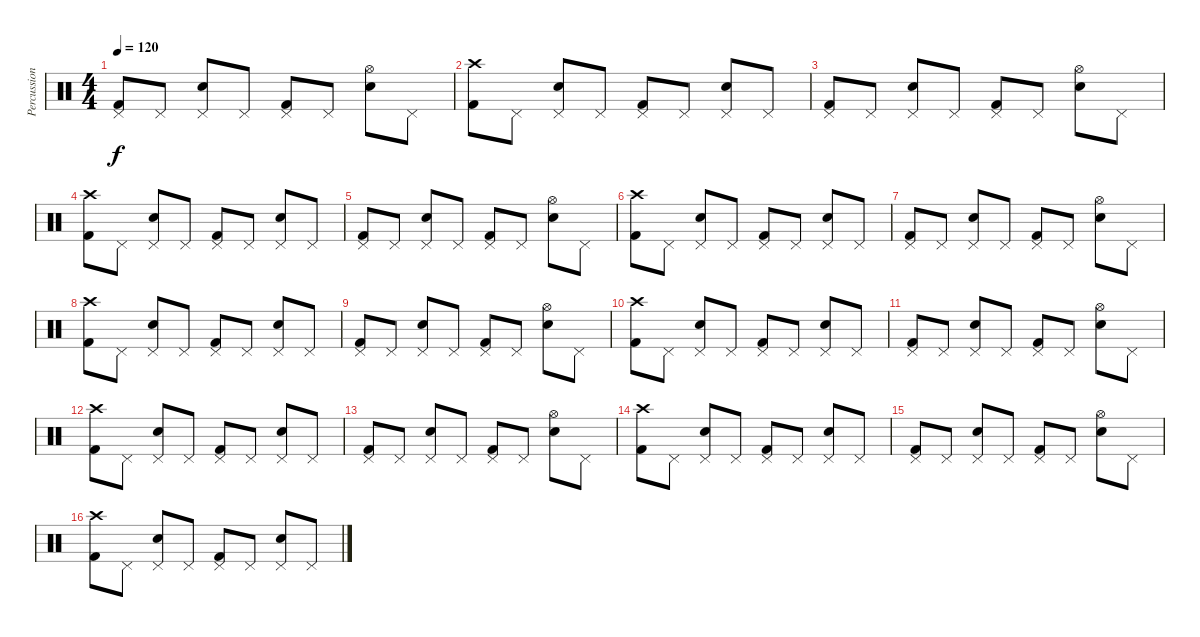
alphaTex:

\track ("Percussion" "Percussion") {instrument percussion}
\staff {score}
\articulation defaults
\ts (4 4)
\tempo 120
\clef neutral
\ks c
("Pedal Hi-Hat (hit)" "Kick (hit) 2").8{dy f} "Pedal Hi-Hat (hit)".8 ("Pedal Hi-Hat (hit)" "Electric Snare (hit)").8 "Pedal Hi-Hat (hit)".8 ("Pedal Hi-Hat (hit)" "Kick (hit) 2").8 "Pedal Hi-Hat (hit)".8 ("Hi-Hat (open)" "Electric Snare (hit)").8 "Pedal Hi-Hat (hit)".8 |
("Crash high (hit)" "Kick (hit) 2").8 "Pedal Hi-Hat (hit)".8 ("Pedal Hi-Hat (hit)" "Electric Snare (hit)").8 "Pedal Hi-Hat (hit)".8 ("Pedal Hi-Hat (hit)" "Kick (hit) 2").8 "Pedal Hi-Hat (hit)".8 ("Pedal Hi-Hat (hit)" "Electric Snare (hit)").8 "Pedal Hi-Hat (hit)".8 |
("Pedal Hi-Hat (hit)" "Kick (hit) 2").8 "Pedal Hi-Hat (hit)".8 ("Pedal Hi-Hat (hit)" "Electric Snare (hit)").8 "Pedal Hi-Hat (hit)".8 ("Pedal Hi-Hat (hit)" "Kick (hit) 2").8 "Pedal Hi-Hat (hit)".8 ("Hi-Hat (open)" "Electric Snare (hit)").8 "Pedal Hi-Hat (hit)".8 |
("Crash high (hit)" "Kick (hit) 2").8 "Pedal Hi-Hat (hit)".8 ("Pedal Hi-Hat (hit)" "Electric Snare (hit)").8 "Pedal Hi-Hat (hit)".8 ("Pedal Hi-Hat (hit)" "Kick (hit) 2").8 "Pedal Hi-Hat (hit)".8 ("Pedal Hi-Hat (hit)" "Electric Snare (hit)").8 "Pedal Hi-Hat (hit)".8 |
("Pedal Hi-Hat (hit)" "Kick (hit) 2").8 "Pedal Hi-Hat (hit)".8 ("Pedal Hi-Hat (hit)" "Electric Snare (hit)").8 "Pedal Hi-Hat (hit)".8 ("Pedal Hi-Hat (hit)" "Kick (hit) 2").8 "Pedal Hi-Hat (hit)".8 ("Hi-Hat (open)" "Electric Snare (hit)").8 "Pedal Hi-Hat (hit)".8 |
("Crash high (hit)" "Kick (hit) 2").8 "Pedal Hi-Hat (hit)".8 ("Pedal Hi-Hat (hit)" "Electric Snare (hit)").8 "Pedal Hi-Hat (hit)".8 ("Pedal Hi-Hat (hit)" "Kick (hit) 2").8 "Pedal Hi-Hat (hit)".8 ("Pedal Hi-Hat (hit)" "Electric Snare (hit)").8 "Pedal Hi-Hat (hit)".8 |
("Pedal Hi-Hat (hit)" "Kick (hit) 2").8 "Pedal Hi-Hat (hit)".8 ("Pedal Hi-Hat (hit)" "Electric Snare (hit)").8 "Pedal Hi-Hat (hit)".8 ("Pedal Hi-Hat (hit)" "Kick (hit) 2").8 "Pedal Hi-Hat (hit)".8 ("Hi-Hat (open)" "Electric Snare (hit)").8 "Pedal Hi-Hat (hit)".8 |
("Crash high (hit)" "Kick (hit) 2").8 "Pedal Hi-Hat (hit)".8 ("Pedal Hi-Hat (hit)" "Electric Snare (hit)").8 "Pedal Hi-Hat (hit)".8 ("Pedal Hi-Hat (hit)" "Kick (hit) 2").8 "Pedal Hi-Hat (hit)".8 ("Pedal Hi-Hat (hit)" "Electric Snare (hit)").8 "Pedal Hi-Hat (hit)".8 |
("Pedal Hi-Hat (hit)" "Kick (hit) 2").8 "Pedal Hi-Hat (hit)".8 ("Pedal Hi-Hat (hit)" "Electric Snare (hit)").8 "Pedal Hi-Hat (hit)".8 ("Pedal Hi-Hat (hit)" "Kick (hit) 2").8 "Pedal Hi-Hat (hit)".8 ("Hi-Hat (open)" "Electric Snare (hit)").8 "Pedal Hi-Hat (hit)".8 |
("Crash high (hit)" "Kick (hit) 2").8 "Pedal Hi-Hat (hit)".8 ("Pedal Hi-Hat (hit)" "Electric Snare (hit)").8 "Pedal Hi-Hat (hit)".8 ("Pedal Hi-Hat (hit)" "Kick (hit) 2").8 "Pedal Hi-Hat (hit)".8 ("Pedal Hi-Hat (hit)" "Electric Snare (hit)").8 "Pedal Hi-Hat (hit)".8 |
("Pedal Hi-Hat (hit)" "Kick (hit) 2").8 "Pedal Hi-Hat (hit)".8 ("Pedal Hi-Hat (hit)" "Electric Snare (hit)").8 "Pedal Hi-Hat (hit)".8 ("Pedal Hi-Hat (hit)" "Kick (hit) 2").8 "Pedal Hi-Hat (hit)".8 ("Hi-Hat (open)" "Electric Snare (hit)").8 "Pedal Hi-Hat (hit)".8 |
("Crash high (hit)" "Kick (hit) 2").8 "Pedal Hi-Hat (hit)".8 ("Pedal Hi-Hat (hit)" "Electric Snare (hit)").8 "Pedal Hi-Hat (hit)".8 ("Pedal Hi-Hat (hit)" "Kick (hit) 2").8 "Pedal Hi-Hat (hit)".8 ("Pedal Hi-Hat (hit)" "Electric Snare (hit)").8 "Pedal Hi-Hat (hit)".8 |
("Pedal Hi-Hat (hit)" "Kick (hit) 2").8 "Pedal Hi-Hat (hit)".8 ("Pedal Hi-Hat (hit)" "Electric Snare (hit)").8 "Pedal Hi-Hat (hit)".8 ("Pedal Hi-Hat (hit)" "Kick (hit) 2").8 "Pedal Hi-Hat (hit)".8 ("Hi-Hat (open)" "Electric Snare (hit)").8 "Pedal Hi-Hat (hit)".8 |
("Crash high (hit)" "Kick (hit) 2").8 "Pedal Hi-Hat (hit)".8 ("Pedal Hi-Hat (hit)" "Electric Snare (hit)").8 "Pedal Hi-Hat (hit)".8 ("Pedal Hi-Hat (hit)" "Kick (hit) 2").8 "Pedal Hi-Hat (hit)".8 ("Pedal Hi-Hat (hit)" "Electric Snare (hit)").8 "Pedal Hi-Hat (hit)".8 |
("Pedal Hi-Hat (hit)" "Kick (hit) 2").8 "Pedal Hi-Hat (hit)".8 ("Pedal Hi-Hat (hit)" "Electric Snare (hit)").8 "Pedal Hi-Hat (hit)".8 ("Pedal Hi-Hat (hit)" "Kick (hit) 2").8 "Pedal Hi-Hat (hit)".8 ("Hi-Hat (open)" "Electric Snare (hit)").8 "Pedal Hi-Hat (hit)".8 |
("Crash high (hit)" "Kick (hit) 2").8 "Pedal Hi-Hat (hit)".8 ("Pedal Hi-Hat (hit)" "Electric Snare (hit)").8 "Pedal Hi-Hat (hit)".8 ("Pedal Hi-Hat (hit)" "Kick (hit) 2").8 "Pedal Hi-Hat (hit)".8 ("Pedal Hi-Hat (hit)" "Electric Snare (hit)").8 "Pedal Hi-Hat (hit)".8
